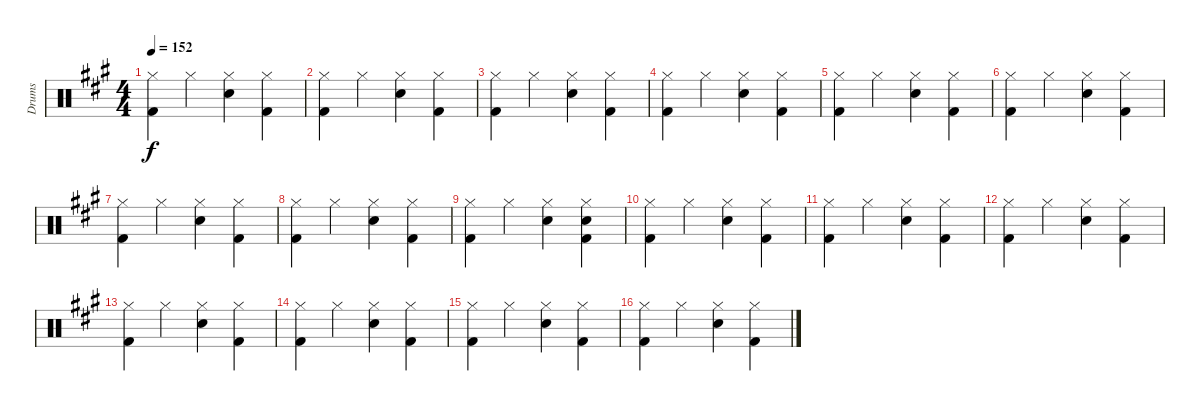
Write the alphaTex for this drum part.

\track ("Drums" "Drums") {instrument percussion}
\staff {score}
\articulation defaults
\ts (4 4)
\tempo 152
\clef neutral
\ks a
("Hi-Hat (closed)" "Kick (hit) 2").4{dy f} "Hi-Hat (closed)".4 ("Hi-Hat (closed)" "Electric Snare (hit)").4 ("Hi-Hat (closed)" "Kick (hit) 2").4 |
("Hi-Hat (closed)" "Kick (hit) 2").4 "Hi-Hat (closed)".4 ("Hi-Hat (closed)" "Electric Snare (hit)").4 ("Hi-Hat (closed)" "Kick (hit) 2").4 |
("Hi-Hat (closed)" "Kick (hit) 2").4 "Hi-Hat (closed)".4 ("Hi-Hat (closed)" "Electric Snare (hit)").4 ("Hi-Hat (closed)" "Kick (hit) 2").4 |
("Hi-Hat (closed)" "Kick (hit) 2").4 "Hi-Hat (closed)".4 ("Hi-Hat (closed)" "Electric Snare (hit)").4 ("Hi-Hat (closed)" "Kick (hit) 2").4 |
("Hi-Hat (closed)" "Kick (hit) 2").4 "Hi-Hat (closed)".4 ("Hi-Hat (closed)" "Electric Snare (hit)").4 ("Hi-Hat (closed)" "Kick (hit) 2").4 |
("Hi-Hat (closed)" "Kick (hit) 2").4 "Hi-Hat (closed)".4 ("Hi-Hat (closed)" "Electric Snare (hit)").4 ("Hi-Hat (closed)" "Kick (hit) 2").4 |
("Hi-Hat (closed)" "Kick (hit) 2").4 "Hi-Hat (closed)".4 ("Hi-Hat (closed)" "Electric Snare (hit)").4 ("Hi-Hat (closed)" "Kick (hit) 2").4 |
("Hi-Hat (closed)" "Kick (hit) 2").4 "Hi-Hat (closed)".4 ("Hi-Hat (closed)" "Electric Snare (hit)").4 ("Hi-Hat (closed)" "Kick (hit) 2").4 |
("Hi-Hat (closed)" "Kick (hit) 2").4 "Hi-Hat (closed)".4 ("Hi-Hat (closed)" "Electric Snare (hit)").4 ("Hi-Hat (closed)" "Electric Snare (hit)" "Kick (hit) 2").4 |
("Hi-Hat (closed)" "Kick (hit) 2").4 "Hi-Hat (closed)".4 ("Hi-Hat (closed)" "Electric Snare (hit)").4 ("Hi-Hat (closed)" "Kick (hit) 2").4 |
("Hi-Hat (closed)" "Kick (hit) 2").4 "Hi-Hat (closed)".4 ("Hi-Hat (closed)" "Electric Snare (hit)").4 ("Hi-Hat (closed)" "Kick (hit) 2").4 |
("Hi-Hat (closed)" "Kick (hit) 2").4 "Hi-Hat (closed)".4 ("Hi-Hat (closed)" "Electric Snare (hit)").4 ("Hi-Hat (closed)" "Kick (hit) 2").4 |
("Hi-Hat (closed)" "Kick (hit) 2").4 "Hi-Hat (closed)".4 ("Hi-Hat (closed)" "Electric Snare (hit)").4 ("Hi-Hat (closed)" "Kick (hit) 2").4 |
("Hi-Hat (closed)" "Kick (hit) 2").4{volume 0} "Hi-Hat (closed)".4 ("Hi-Hat (closed)" "Electric Snare (hit)").4 ("Hi-Hat (closed)" "Kick (hit) 2").4 |
("Hi-Hat (closed)" "Kick (hit) 2").4 "Hi-Hat (closed)".4 ("Hi-Hat (closed)" "Electric Snare (hit)").4 ("Hi-Hat (closed)" "Kick (hit) 2").4 |
("Hi-Hat (closed)" "Kick (hit) 2").4 "Hi-Hat (closed)".4 ("Hi-Hat (closed)" "Electric Snare (hit)").4 ("Hi-Hat (closed)" "Kick (hit) 2").4
